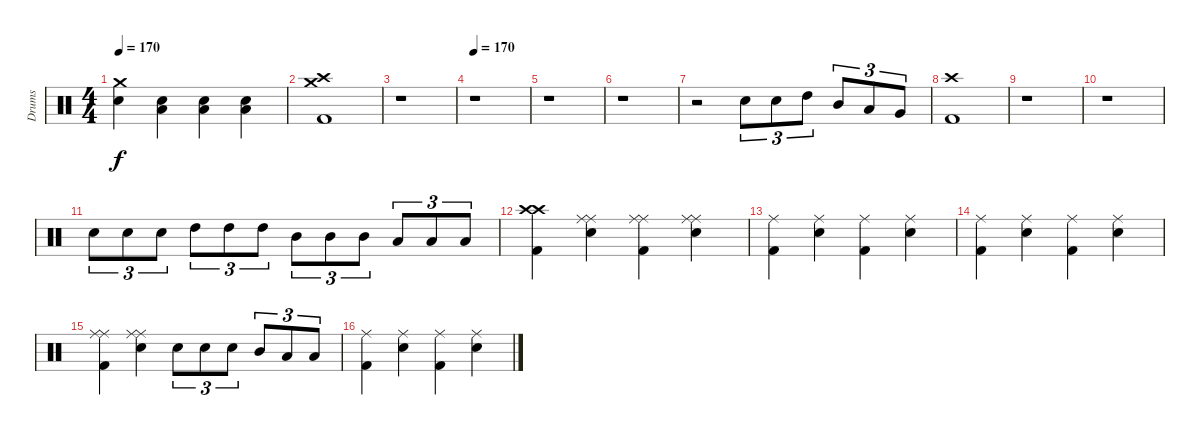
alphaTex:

\track ("Drums" "Drums") {instrument percussion}
\staff {score}
\articulation defaults
\ts (4 4)
\tempo 170
\clef neutral
\ks c
("Crash medium (hit)" "Snare (hit) 2").4{dy f} ("Low Floor Tom (hit)" "Snare (hit) 2").4 ("Low Floor Tom (hit)" "Snare (hit) 2").4 ("Low Floor Tom (hit)" "Snare (hit) 2").4 |
("Crash high (hit)" "Crash medium (hit)" "Kick (hit) 2").1 |
r.1 |
\tempo 170
r.1 |
r.1 |
r.1 |
r.2 "Snare (hit) 2".8{tu (3 2)} "Snare (hit) 2".8{tu (3 2)} "High Tom (hit)".8{tu (3 2)} "Mid Tom (hit)".8{tu (3 2)} "Low Tom (hit)".8{tu (3 2)} "Very Low Tom (hit)".8{tu (3 2)} |
("Crash high (hit)" "Kick (hit) 2").1 |
r.1 |
r.1 |
"Snare (hit) 2".8{tu (3 2)} "Snare (hit) 2".8{tu (3 2)} "Snare (hit) 2".8{tu (3 2)} "High Tom (hit)".8{tu (3 2)} "High Tom (hit)".8{tu (3 2)} "High Tom (hit)".8{tu (3 2)} "Mid Tom (hit)".8{tu (3 2)} "Mid Tom (hit)".8{tu (3 2)} "Mid Tom (hit)".8{tu (3 2)} "Low Tom (hit)".8{tu (3 2)} "Low Tom (hit)".8{tu (3 2)} "Low Tom (hit)".8{tu (3 2)} |
("Crash high (hit)" "Crash high (hit)" "Kick (hit) 2").4 ("Ride (middle)" "Ride (middle)" "Electric Snare (hit)").4 ("Ride (middle)" "Ride (middle)" "Kick (hit) 2").4 ("Ride (middle)" "Ride (middle)" "Electric Snare (hit)").4 |
("Ride (middle)" "Kick (hit) 2").4 ("Ride (middle)" "Snare (hit) 2").4 ("Ride (middle)" "Kick (hit) 2").4 ("Ride (middle)" "Snare (hit) 2").4 |
("Ride (middle)" "Kick (hit) 2").4 ("Ride (middle)" "Snare (hit) 2").4 ("Ride (middle)" "Kick (hit) 2").4 ("Ride (middle)" "Snare (hit) 2").4 |
("Ride (middle)" "Ride (middle)" "Kick (hit) 2").4 ("Ride (middle)" "Ride (middle)" "Snare (hit) 2").4 "Snare (hit) 2".8{tu (3 2)} "Snare (hit) 2".8{tu (3 2)} "Snare (hit) 2".8{tu (3 2)} "Mid Tom (hit)".8{tu (3 2)} "Low Tom (hit)".8{tu (3 2)} "Low Tom (hit)".8{tu (3 2)} |
("Ride (middle)" "Kick (hit) 2").4 ("Ride (middle)" "Snare (hit) 2").4 ("Ride (middle)" "Kick (hit) 2").4 ("Ride (middle)" "Snare (hit) 2").4
